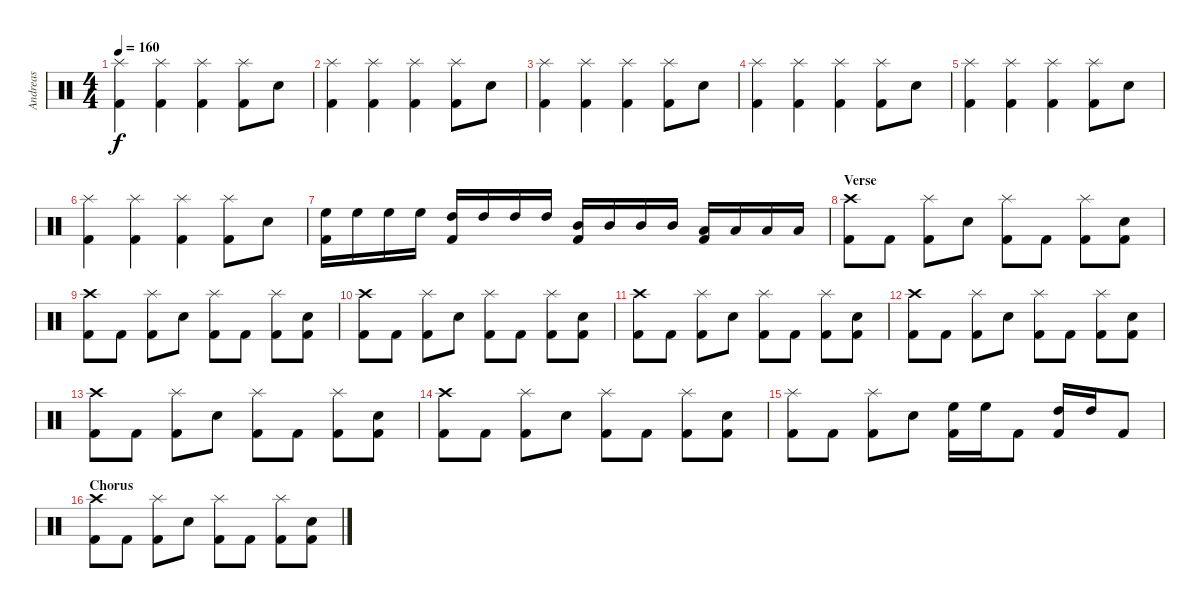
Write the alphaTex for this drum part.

\track ("Andreas" "Andreas") {instrument percussion}
\staff {score}
\articulation defaults
\ts (4 4)
\tempo 160
\clef neutral
\ks c
("Splash (hit)" "Kick (hit) 2").4{dy f} ("Splash (hit)" "Kick (hit) 2").4 ("Splash (hit)" "Kick (hit) 2").4 ("Splash (hit)" "Kick (hit) 2").8 "Snare (hit) 2".8 |
("Splash (hit)" "Kick (hit) 2").4 ("Splash (hit)" "Kick (hit) 2").4 ("Splash (hit)" "Kick (hit) 2").4 ("Splash (hit)" "Kick (hit) 2").8 "Snare (hit) 2".8 |
("Splash (hit)" "Kick (hit) 2").4 ("Splash (hit)" "Kick (hit) 2").4 ("Splash (hit)" "Kick (hit) 2").4 ("Splash (hit)" "Kick (hit) 2").8 "Snare (hit) 2".8 |
("Splash (hit)" "Kick (hit) 2").4 ("Splash (hit)" "Kick (hit) 2").4 ("Splash (hit)" "Kick (hit) 2").4 ("Splash (hit)" "Kick (hit) 2").8 "Snare (hit) 2".8 |
("Splash (hit)" "Kick (hit) 2").4 ("Splash (hit)" "Kick (hit) 2").4 ("Splash (hit)" "Kick (hit) 2").4 ("Splash (hit)" "Kick (hit) 2").8 "Snare (hit) 2".8 |
("Splash (hit)" "Kick (hit) 2").4 ("Splash (hit)" "Kick (hit) 2").4 ("Splash (hit)" "Kick (hit) 2").4 ("Splash (hit)" "Kick (hit) 2").8 "Snare (hit) 2".8 |
("High Floor Tom (hit)" "Kick (hit) 2").16 "High Floor Tom (hit)".16 "High Floor Tom (hit)".16 "High Floor Tom (hit)".16 ("High Tom (hit)" "Kick (hit) 2").16 "High Tom (hit)".16 "High Tom (hit)".16 "High Tom (hit)".16 ("Mid Tom (hit)" "Kick (hit) 2").16 "Mid Tom (hit)".16 "Mid Tom (hit)".16 "Mid Tom (hit)".16 ("Low Tom (hit)" "Kick (hit) 2").16 "Low Tom (hit)".16 "Low Tom (hit)".16 "Low Tom (hit)".16 |
\section ("" "Verse")
("Crash high (hit)" "Kick (hit) 2").8 "Kick (hit) 2".8 ("Splash (hit)" "Kick (hit) 2").8 "Snare (hit) 2".8 ("Splash (hit)" "Kick (hit) 2").8 "Kick (hit) 2".8 ("Splash (hit)" "Kick (hit) 2").8 ("Snare (hit) 2" "Kick (hit) 2").8 |
("Crash high (hit)" "Kick (hit) 2").8 "Kick (hit) 2".8 ("Splash (hit)" "Kick (hit) 2").8 "Snare (hit) 2".8 ("Splash (hit)" "Kick (hit) 2").8 "Kick (hit) 2".8 ("Splash (hit)" "Kick (hit) 2").8 ("Snare (hit) 2" "Kick (hit) 2").8 |
("Crash high (hit)" "Kick (hit) 2").8 "Kick (hit) 2".8 ("Splash (hit)" "Kick (hit) 2").8 "Snare (hit) 2".8 ("Splash (hit)" "Kick (hit) 2").8 "Kick (hit) 2".8 ("Splash (hit)" "Kick (hit) 2").8 ("Snare (hit) 2" "Kick (hit) 2").8 |
("Crash high (hit)" "Kick (hit) 2").8 "Kick (hit) 2".8 ("Splash (hit)" "Kick (hit) 2").8 "Snare (hit) 2".8 ("Splash (hit)" "Kick (hit) 2").8 "Kick (hit) 2".8 ("Splash (hit)" "Kick (hit) 2").8 ("Snare (hit) 2" "Kick (hit) 2").8 |
("Crash high (hit)" "Kick (hit) 2").8 "Kick (hit) 2".8 ("Splash (hit)" "Kick (hit) 2").8 "Snare (hit) 2".8 ("Splash (hit)" "Kick (hit) 2").8 "Kick (hit) 2".8 ("Splash (hit)" "Kick (hit) 2").8 ("Snare (hit) 2" "Kick (hit) 2").8 |
("Crash high (hit)" "Kick (hit) 2").8 "Kick (hit) 2".8 ("Splash (hit)" "Kick (hit) 2").8 "Snare (hit) 2".8 ("Splash (hit)" "Kick (hit) 2").8 "Kick (hit) 2".8 ("Splash (hit)" "Kick (hit) 2").8 ("Snare (hit) 2" "Kick (hit) 2").8 |
("Crash high (hit)" "Kick (hit) 2").8 "Kick (hit) 2".8 ("Splash (hit)" "Kick (hit) 2").8 "Snare (hit) 2".8 ("Splash (hit)" "Kick (hit) 2").8 "Kick (hit) 2".8 ("Splash (hit)" "Kick (hit) 2").8 ("Snare (hit) 2" "Kick (hit) 2").8 |
("Splash (hit)" "Kick (hit) 2").8 "Kick (hit) 2".8 ("Splash (hit)" "Kick (hit) 2").8 "Snare (hit) 2".8 ("High Floor Tom (hit)" "Kick (hit) 2").16 "High Floor Tom (hit)".16 "Kick (hit) 2".8 ("High Tom (hit)" "Kick (hit) 2").16 "High Tom (hit)".16 "Kick (hit) 2".8 |
\section ("" "Chorus")
("Crash high (hit)" "Kick (hit) 2").8 "Kick (hit) 2".8 ("Splash (hit)" "Kick (hit) 2").8 "Snare (hit) 2".8 ("Splash (hit)" "Kick (hit) 2").8 "Kick (hit) 2".8 ("Splash (hit)" "Kick (hit) 2").8 ("Snare (hit) 2" "Kick (hit) 2").8
